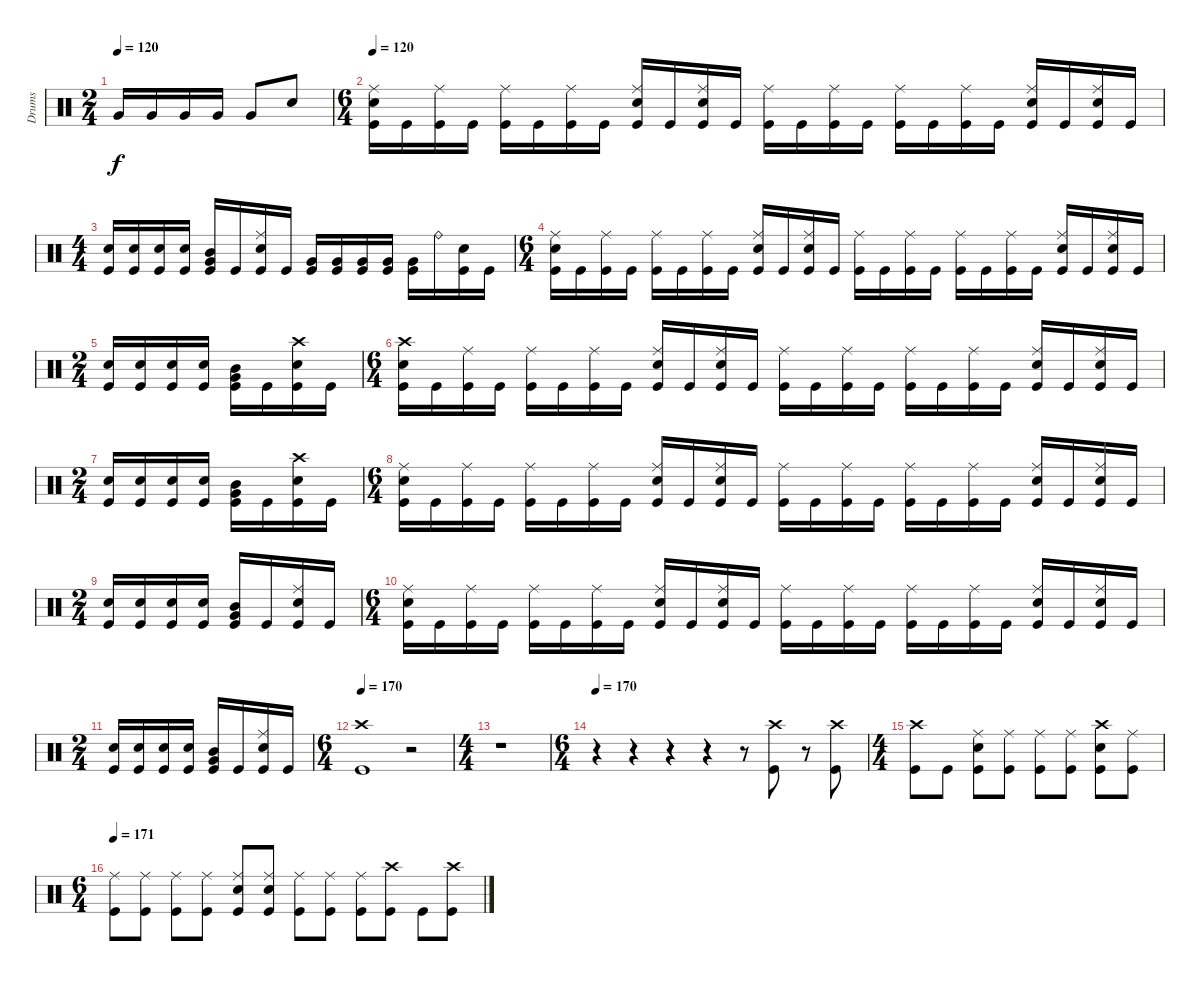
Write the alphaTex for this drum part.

\track ("Drums" "Drums") {instrument percussion}
\staff {score}
\articulation defaults
\ts (2 4)
\tempo 120
\tempo 110
\tempo 120
\clef neutral
\ks c "Very Low Tom (hit)".16{dy f} "Very Low Tom (hit)".16 "Very Low Tom (hit)".16 "Very Low Tom (hit)".16 "Very Low Tom (hit)".8 "Electric Snare (hit)".8
|
\ts (6 4)
\tempo 120
("Ride (middle)" "Electric Snare (hit)" "Kick (hit)").16 "Kick (hit)".16 ("Ride (middle)" "Kick (hit)").16 "Kick (hit)".16 ("Ride (middle)" "Kick (hit)").16 "Kick (hit)".16 ("Ride (middle)" "Kick (hit)").16 "Kick (hit)".16 ("Ride (middle)" "Electric Snare (hit)" "Kick (hit)").16 "Kick (hit)".16 ("Ride (middle)" "Electric Snare (hit)" "Kick (hit)").16 "Kick (hit)".16 ("Ride (middle)" "Kick (hit)").16 "Kick (hit)".16 ("Ride (middle)" "Kick (hit)").16 "Kick (hit)".16 ("Ride (middle)" "Kick (hit)").16 "Kick (hit)".16 ("Ride (middle)" "Kick (hit)").16 "Kick (hit)".16 ("Ride (middle)" "Electric Snare (hit)" "Kick (hit)").16 "Kick (hit)".16 ("Ride (middle)" "Electric Snare (hit)" "Kick (hit)").16 "Kick (hit)".16 |
\ts (4 4)
("Electric Snare (hit)" "Kick (hit)").16 ("Electric Snare (hit)" "Kick (hit)").16 ("Electric Snare (hit)" "Kick (hit)").16 ("Electric Snare (hit)" "Kick (hit)").16 ("Mid Tom (hit)" "Very Low Tom (hit)" "Kick (hit)").16 "Kick (hit)".16 ("Ride (middle)" "Electric Snare (hit)" "Kick (hit)").16 "Kick (hit)".16 ("Very Low Tom (hit)" "Kick (hit)").16 ("Very Low Tom (hit)" "Kick (hit)").16 ("Very Low Tom (hit)" "Kick (hit)").16 ("Very Low Tom (hit)" "Kick (hit)").16 ("Very Low Tom (hit)" "Kick (hit)").16 "Ride (bell)".16 ("Electric Snare (hit)" "Kick (hit)").16 "Kick (hit)".16 |
\ts (6 4)
("Ride (middle)" "Electric Snare (hit)" "Kick (hit)").16 "Kick (hit)".16 ("Ride (middle)" "Kick (hit)").16 "Kick (hit)".16 ("Ride (middle)" "Kick (hit)").16 "Kick (hit)".16 ("Ride (middle)" "Kick (hit)").16 "Kick (hit)".16 ("Ride (middle)" "Electric Snare (hit)" "Kick (hit)").16 "Kick (hit)".16 ("Ride (middle)" "Electric Snare (hit)" "Kick (hit)").16 "Kick (hit)".16 ("Ride (middle)" "Kick (hit)").16 "Kick (hit)".16 ("Ride (middle)" "Kick (hit)").16 "Kick (hit)".16 ("Ride (middle)" "Kick (hit)").16 "Kick (hit)".16 ("Ride (middle)" "Kick (hit)").16 "Kick (hit)".16 ("Ride (middle)" "Electric Snare (hit)" "Kick (hit)").16 "Kick (hit)".16 ("Ride (middle)" "Electric Snare (hit)" "Kick (hit)").16 "Kick (hit)".16 |
\ts (2 4)
("Electric Snare (hit)" "Kick (hit)").16 ("Electric Snare (hit)" "Kick (hit)").16 ("Electric Snare (hit)" "Kick (hit)").16 ("Electric Snare (hit)" "Kick (hit)").16 ("Mid Tom (hit)" "Very Low Tom (hit)" "Kick (hit)").16 "Kick (hit)".16 ("Crash high (hit)" "Electric Snare (hit)" "Kick (hit)").16 "Kick (hit)".16 |
\ts (6 4)
("Crash high (hit)" "Electric Snare (hit)" "Kick (hit)").16 "Kick (hit)".16 ("Ride (middle)" "Kick (hit)").16 "Kick (hit)".16 ("Ride (middle)" "Kick (hit)").16 "Kick (hit)".16 ("Ride (middle)" "Kick (hit)").16 "Kick (hit)".16 ("Ride (middle)" "Electric Snare (hit)" "Kick (hit)").16 "Kick (hit)".16 ("Ride (middle)" "Electric Snare (hit)" "Kick (hit)").16 "Kick (hit)".16 ("Ride (middle)" "Kick (hit)").16 "Kick (hit)".16 ("Ride (middle)" "Kick (hit)").16 "Kick (hit)".16 ("Ride (middle)" "Kick (hit)").16 "Kick (hit)".16 ("Ride (middle)" "Kick (hit)").16 "Kick (hit)".16 ("Ride (middle)" "Electric Snare (hit)" "Kick (hit)").16 "Kick (hit)".16 ("Ride (middle)" "Electric Snare (hit)" "Kick (hit)").16 "Kick (hit)".16 |
\ts (2 4)
("Electric Snare (hit)" "Kick (hit)").16 ("Electric Snare (hit)" "Kick (hit)").16 ("Electric Snare (hit)" "Kick (hit)").16 ("Electric Snare (hit)" "Kick (hit)").16 ("Mid Tom (hit)" "Very Low Tom (hit)" "Kick (hit)").16 "Kick (hit)".16 ("Crash high (hit)" "Electric Snare (hit)" "Kick (hit)").16 "Kick (hit)".16 |
\ts (6 4)
("Ride (middle)" "Electric Snare (hit)" "Kick (hit)").16 "Kick (hit)".16 ("Ride (middle)" "Kick (hit)").16 "Kick (hit)".16 ("Ride (middle)" "Kick (hit)").16 "Kick (hit)".16 ("Ride (middle)" "Kick (hit)").16 "Kick (hit)".16 ("Ride (middle)" "Electric Snare (hit)" "Kick (hit)").16 "Kick (hit)".16 ("Ride (middle)" "Electric Snare (hit)" "Kick (hit)").16 "Kick (hit)".16 ("Ride (middle)" "Kick (hit)").16 "Kick (hit)".16 ("Ride (middle)" "Kick (hit)").16 "Kick (hit)".16 ("Ride (middle)" "Kick (hit)").16 "Kick (hit)".16 ("Ride (middle)" "Kick (hit)").16 "Kick (hit)".16 ("Ride (middle)" "Electric Snare (hit)" "Kick (hit)").16 "Kick (hit)".16 ("Ride (middle)" "Electric Snare (hit)" "Kick (hit)").16 "Kick (hit)".16 |
\ts (2 4)
("Electric Snare (hit)" "Kick (hit)").16 ("Electric Snare (hit)" "Kick (hit)").16 ("Electric Snare (hit)" "Kick (hit)").16 ("Electric Snare (hit)" "Kick (hit)").16 ("Mid Tom (hit)" "Very Low Tom (hit)" "Kick (hit)").16 "Kick (hit)".16 ("Ride (middle)" "Electric Snare (hit)" "Kick (hit)").16 "Kick (hit)".16 |
\ts (6 4)
("Ride (middle)" "Electric Snare (hit)" "Kick (hit)").16 "Kick (hit)".16 ("Ride (middle)" "Kick (hit)").16 "Kick (hit)".16 ("Ride (middle)" "Kick (hit)").16 "Kick (hit)".16 ("Ride (middle)" "Kick (hit)").16 "Kick (hit)".16 ("Ride (middle)" "Electric Snare (hit)" "Kick (hit)").16 "Kick (hit)".16 ("Ride (middle)" "Electric Snare (hit)" "Kick (hit)").16 "Kick (hit)".16 ("Ride (middle)" "Kick (hit)").16 "Kick (hit)".16 ("Ride (middle)" "Kick (hit)").16 "Kick (hit)".16 ("Ride (middle)" "Kick (hit)").16 "Kick (hit)".16 ("Ride (middle)" "Kick (hit)").16 "Kick (hit)".16 ("Ride (middle)" "Electric Snare (hit)" "Kick (hit)").16 "Kick (hit)".16 ("Ride (middle)" "Electric Snare (hit)" "Kick (hit)").16 "Kick (hit)".16 |
\ts (2 4)
("Electric Snare (hit)" "Kick (hit)").16 ("Electric Snare (hit)" "Kick (hit)").16 ("Electric Snare (hit)" "Kick (hit)").16 ("Electric Snare (hit)" "Kick (hit)").16 ("Mid Tom (hit)" "Very Low Tom (hit)" "Kick (hit)").16 "Kick (hit)".16 ("Ride (middle)" "Electric Snare (hit)" "Kick (hit)").16 "Kick (hit)".16 |
\ts (6 4)
\tempo 170
("Crash high (hit)" "Kick (hit)").1 r.2 |
\ts (4 4)
r.1 |
\ts (6 4)
\tempo 170
r.4 r.4 r.4 r.4 r.8 ("Crash high (hit)" "Kick (hit)").8 r.8 ("Crash high (hit)" "Kick (hit)").8 |
\ts (4 4)
("Crash high (hit)" "Kick (hit)").8 "Kick (hit)".8 ("Ride (middle)" "Electric Snare (hit)" "Kick (hit)").8 ("Ride (middle)" "Kick (hit)").8 ("Ride (middle)" "Kick (hit)").8 ("Ride (middle)" "Kick (hit)").8 ("Crash high (hit)" "Electric Snare (hit)" "Kick (hit)").8 ("Ride (middle)" "Kick (hit)").8 |
\ts (6 4)
\tempo 170
\tempo 171
("Ride (middle)" "Kick (hit)").8 ("Ride (middle)" "Kick (hit)").8 ("Ride (middle)" "Kick (hit)").8 ("Ride (middle)" "Kick (hit)").8 ("Ride (middle)" "Electric Snare (hit)" "Kick (hit)").8 ("Ride (middle)" "Electric Snare (hit)" "Kick (hit)").8 ("Ride (middle)" "Kick (hit)").8 ("Ride (middle)" "Kick (hit)").8 ("Ride (middle)" "Kick (hit)").8 ("Crash high (hit)" "Kick (hit)").8 "Kick (hit)".8 ("Crash high (hit)" "Kick (hit)").8
